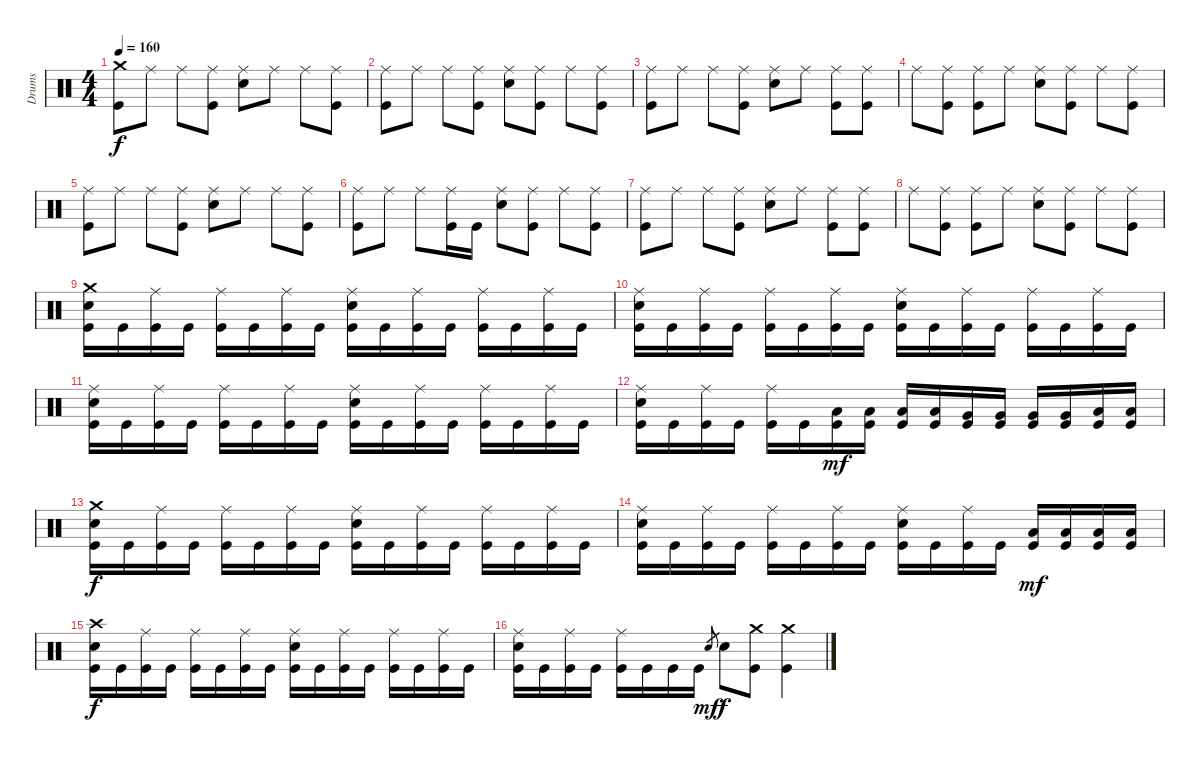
\track ("Drums" "Drums") {instrument percussion}
\staff {score}
\articulation defaults
\ts (4 4)
\tempo 160
\clef neutral
\ks c
("Crash medium (hit)" "Kick (hit)").8{dy f} "Ride (middle)".8 "Ride (middle)".8 ("Ride (middle)" "Kick (hit)").8 ("Ride (middle)" "Snare (hit) 2").8 "Ride (middle)".8 "Ride (middle)".8 ("Ride (middle)" "Kick (hit)").8 |
("Ride (middle)" "Kick (hit)").8 "Ride (middle)".8 "Ride (middle)".8 ("Ride (middle)" "Kick (hit)").8 ("Ride (middle)" "Snare (hit) 2").8 ("Ride (middle)" "Kick (hit)").8 "Ride (middle)".8 ("Ride (middle)" "Kick (hit)").8 |
("Ride (middle)" "Kick (hit)").8 "Ride (middle)".8 "Ride (middle)".8 ("Ride (middle)" "Kick (hit)").8 ("Ride (middle)" "Snare (hit) 2").8 "Ride (middle)".8 ("Ride (middle)" "Kick (hit)").8 ("Ride (middle)" "Kick (hit)").8 |
"Ride (middle)".8 ("Ride (middle)" "Kick (hit)").8 ("Ride (middle)" "Kick (hit)").8 "Ride (middle)".8 ("Ride (middle)" "Snare (hit) 2").8 ("Ride (middle)" "Kick (hit)").8 "Ride (middle)".8 ("Ride (middle)" "Kick (hit)").8 |
("Ride (middle)" "Kick (hit)").8 "Ride (middle)".8 "Ride (middle)".8 ("Ride (middle)" "Kick (hit)").8 ("Ride (middle)" "Snare (hit) 2").8 "Ride (middle)".8 "Ride (middle)".8 ("Ride (middle)" "Kick (hit)").8 |
("Ride (middle)" "Kick (hit)").8 "Ride (middle)".8 "Ride (middle)".8 ("Ride (middle)" "Kick (hit)").16 "Kick (hit)".16 ("Ride (middle)" "Snare (hit) 2").8 ("Ride (middle)" "Kick (hit)").8 "Ride (middle)".8 ("Ride (middle)" "Kick (hit)").8 |
("Ride (middle)" "Kick (hit)").8 "Ride (middle)".8 "Ride (middle)".8 ("Ride (middle)" "Kick (hit)").8 ("Ride (middle)" "Snare (hit) 2").8 "Ride (middle)".8 ("Ride (middle)" "Kick (hit)").8 ("Ride (middle)" "Kick (hit)").8 |
"Ride (middle)".8 ("Ride (middle)" "Kick (hit)").8 ("Ride (middle)" "Kick (hit)").8 "Ride (middle)".8 ("Ride (middle)" "Snare (hit) 2").8 ("Ride (middle)" "Kick (hit)").8 "Ride (middle)".8 ("Ride (middle)" "Kick (hit)").8 |
("Crash medium (hit)" "Snare (hit) 2" "Kick (hit)").16 "Kick (hit)".16 ("Ride (middle)" "Kick (hit)").16 "Kick (hit)".16 ("Ride (middle)" "Kick (hit)").16 "Kick (hit)".16 ("Ride (middle)" "Kick (hit)").16 "Kick (hit)".16 ("Ride (middle)" "Snare (hit) 2" "Kick (hit)").16 "Kick (hit)".16 ("Ride (middle)" "Kick (hit)").16 "Kick (hit)".16 ("Ride (middle)" "Kick (hit)").16 "Kick (hit)".16 ("Ride (middle)" "Kick (hit)").16 "Kick (hit)".16 |
("Ride (middle)" "Snare (hit) 2" "Kick (hit)").16 "Kick (hit)".16 ("Ride (middle)" "Kick (hit)").16 "Kick (hit)".16 ("Ride (middle)" "Kick (hit)").16 "Kick (hit)".16 ("Ride (middle)" "Kick (hit)").16 "Kick (hit)".16 ("Ride (middle)" "Snare (hit) 2" "Kick (hit)").16 "Kick (hit)".16 ("Ride (middle)" "Kick (hit)").16 "Kick (hit)".16 ("Ride (middle)" "Kick (hit)").16 "Kick (hit)".16 ("Ride (middle)" "Kick (hit)").16 "Kick (hit)".16 |
("Ride (middle)" "Snare (hit) 2" "Kick (hit)").16 "Kick (hit)".16 ("Ride (middle)" "Kick (hit)").16 "Kick (hit)".16 ("Ride (middle)" "Kick (hit)").16 "Kick (hit)".16 ("Ride (middle)" "Kick (hit)").16 "Kick (hit)".16 ("Ride (middle)" "Snare (hit) 2" "Kick (hit)").16 "Kick (hit)".16 ("Ride (middle)" "Kick (hit)").16 "Kick (hit)".16 ("Ride (middle)" "Kick (hit)").16 "Kick (hit)".16 ("Ride (middle)" "Kick (hit)").16 "Kick (hit)".16 |
("Ride (middle)" "Snare (hit) 2" "Kick (hit)").16 "Kick (hit)".16 ("Ride (middle)" "Kick (hit)").16 "Kick (hit)".16 ("Ride (middle)" "Kick (hit)").16 "Kick (hit)".16 ("Low Tom (hit)" "Kick (hit)").16{dy mf} ("Low Tom (hit)" "Kick (hit)").16 ("Low Tom (hit)" "Kick (hit)").16 ("Low Tom (hit)" "Kick (hit)").16 ("Very Low Tom (hit)" "Kick (hit)").16 ("Very Low Tom (hit)" "Kick (hit)").16 ("Very Low Tom (hit)" "Kick (hit)").16 ("Very Low Tom (hit)" "Kick (hit)").16 ("Low Floor Tom (hit)" "Kick (hit)").16 ("Low Floor Tom (hit)" "Kick (hit)").16 |
("Crash medium (hit)" "Snare (hit) 2" "Kick (hit)").16{dy f} "Kick (hit)".16 ("Ride (middle)" "Kick (hit)").16 "Kick (hit)".16 ("Ride (middle)" "Kick (hit)").16 "Kick (hit)".16 ("Ride (middle)" "Kick (hit)").16 "Kick (hit)".16 ("Ride (middle)" "Snare (hit) 2" "Kick (hit)").16 "Kick (hit)".16 ("Ride (middle)" "Kick (hit)").16 "Kick (hit)".16 ("Ride (middle)" "Kick (hit)").16 "Kick (hit)".16 ("Ride (middle)" "Kick (hit)").16 "Kick (hit)".16 |
("Ride (middle)" "Snare (hit) 2" "Kick (hit)").16 "Kick (hit)".16 ("Ride (middle)" "Kick (hit)").16 "Kick (hit)".16 ("Ride (middle)" "Kick (hit)").16 "Kick (hit)".16 ("Ride (middle)" "Kick (hit)").16 "Kick (hit)".16 ("Ride (middle)" "Snare (hit) 2" "Kick (hit)").16 "Kick (hit)".16 ("Ride (middle)" "Kick (hit)").16 "Kick (hit)".16 ("Low Floor Tom (hit)" "Kick (hit)").16{dy mf} ("Low Floor Tom (hit)" "Kick (hit)").16 ("Low Floor Tom (hit)" "Kick (hit)").16 ("Low Floor Tom (hit)" "Kick (hit)").16 |
("Crash high (hit)" "Snare (hit) 2" "Kick (hit)").16{dy f} "Kick (hit)".16 ("Ride (middle)" "Kick (hit)").16 "Kick (hit)".16 ("Ride (middle)" "Kick (hit)").16 "Kick (hit)".16 ("Ride (middle)" "Kick (hit)").16 "Kick (hit)".16 ("Ride (middle)" "Snare (hit) 2" "Kick (hit)").16 "Kick (hit)".16 ("Ride (middle)" "Kick (hit)").16 "Kick (hit)".16 ("Ride (middle)" "Kick (hit)").16 "Kick (hit)".16 ("Ride (middle)" "Kick (hit)").16 "Kick (hit)".16 |
("Ride (middle)" "Snare (hit) 2" "Kick (hit)").16 "Kick (hit)".16 ("Ride (middle)" "Kick (hit)").16 "Kick (hit)".16 ("Ride (middle)" "Kick (hit)").16 "Kick (hit)".16 "Kick (hit)".16 "Kick (hit)".16 "Snare (hit) 2".8{gr dy mf} "Snare (hit) 2".8{dy f} ("Crash medium (hit)" "Kick (hit)").8 ("Crash medium (hit)" "Kick (hit)").4
